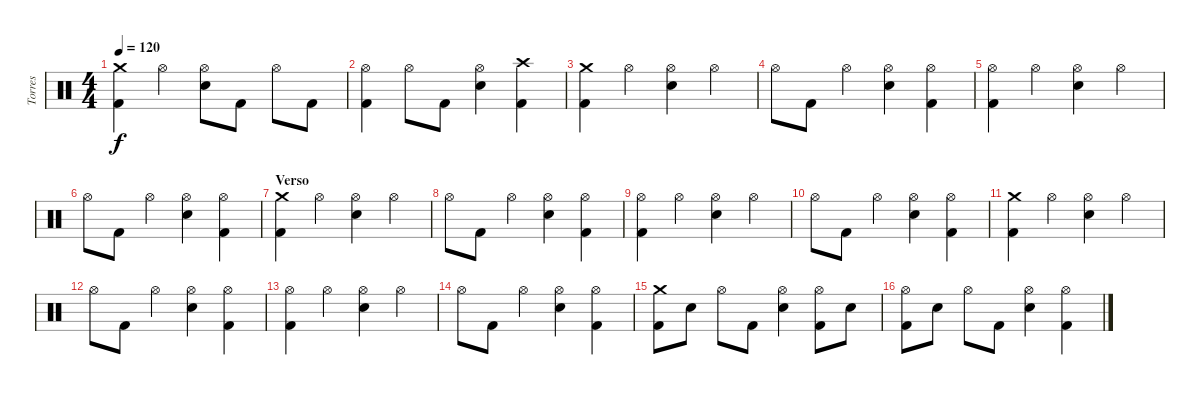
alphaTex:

\track ("Torres" "Torres") {instrument percussion}
\staff {score}
\articulation defaults
\ts (4 4)
\tempo 120
\clef neutral
\ks c
("Crash medium (hit)" "Kick (hit) 2").4{dy f} "Hi-Hat (open)".4 ("Hi-Hat (open)" "Electric Snare (hit)").8 "Kick (hit) 2".8 "Hi-Hat (open)".8 "Kick (hit) 2".8 |
("Hi-Hat (open)" "Kick (hit) 2").4 "Hi-Hat (open)".8 "Kick (hit) 2".8 ("Hi-Hat (open)" "Electric Snare (hit)").4 ("Crash high (hit)" "Kick (hit) 2").4 |
("Crash medium (hit)" "Kick (hit) 2").4 "Hi-Hat (open)".4 ("Hi-Hat (open)" "Electric Snare (hit)").4 "Hi-Hat (open)".4 |
"Hi-Hat (open)".8 "Kick (hit) 2".8 "Hi-Hat (open)".4 ("Hi-Hat (open)" "Electric Snare (hit)").4 ("Hi-Hat (open)" "Kick (hit) 2").4 |
("Hi-Hat (open)" "Kick (hit) 2").4 "Hi-Hat (open)".4 ("Hi-Hat (open)" "Electric Snare (hit)").4 "Hi-Hat (open)".4 |
"Hi-Hat (open)".8 "Kick (hit) 2".8 "Hi-Hat (open)".4 ("Hi-Hat (open)" "Electric Snare (hit)").4 ("Hi-Hat (open)" "Kick (hit) 2").4 |
\section ("" "Verso")
("Crash medium (hit)" "Kick (hit) 2").4 "Hi-Hat (open)".4 ("Hi-Hat (open)" "Electric Snare (hit)").4 "Hi-Hat (open)".4 |
"Hi-Hat (open)".8 "Kick (hit) 2".8 "Hi-Hat (open)".4 ("Hi-Hat (open)" "Electric Snare (hit)").4 ("Hi-Hat (open)" "Kick (hit) 2").4 |
("Hi-Hat (open)" "Kick (hit) 2").4 "Hi-Hat (open)".4 ("Hi-Hat (open)" "Electric Snare (hit)").4 "Hi-Hat (open)".4 |
"Hi-Hat (open)".8 "Kick (hit) 2".8 "Hi-Hat (open)".4 ("Hi-Hat (open)" "Electric Snare (hit)").4 ("Hi-Hat (open)" "Kick (hit) 2").4 |
("Crash medium (hit)" "Kick (hit) 2").4 "Hi-Hat (open)".4 ("Hi-Hat (open)" "Electric Snare (hit)").4 "Hi-Hat (open)".4 |
"Hi-Hat (open)".8 "Kick (hit) 2".8 "Hi-Hat (open)".4 ("Hi-Hat (open)" "Electric Snare (hit)").4 ("Hi-Hat (open)" "Kick (hit) 2").4 |
("Hi-Hat (open)" "Kick (hit) 2").4 "Hi-Hat (open)".4 ("Hi-Hat (open)" "Electric Snare (hit)").4 "Hi-Hat (open)".4 |
"Hi-Hat (open)".8 "Kick (hit) 2".8 "Hi-Hat (open)".4 ("Hi-Hat (open)" "Electric Snare (hit)").4 ("Hi-Hat (open)" "Kick (hit) 2").4 |
("Crash medium (hit)" "Kick (hit) 2").8 "Electric Snare (hit)".8 "Hi-Hat (open)".8 "Kick (hit) 2".8 ("Hi-Hat (open)" "Electric Snare (hit)").4 ("Hi-Hat (open)" "Kick (hit) 2").8 "Electric Snare (hit)".8 |
("Hi-Hat (open)" "Kick (hit) 2").8 "Electric Snare (hit)".8 "Hi-Hat (open)".8 "Kick (hit) 2".8 ("Hi-Hat (open)" "Electric Snare (hit)").4 ("Hi-Hat (open)" "Kick (hit) 2").4
